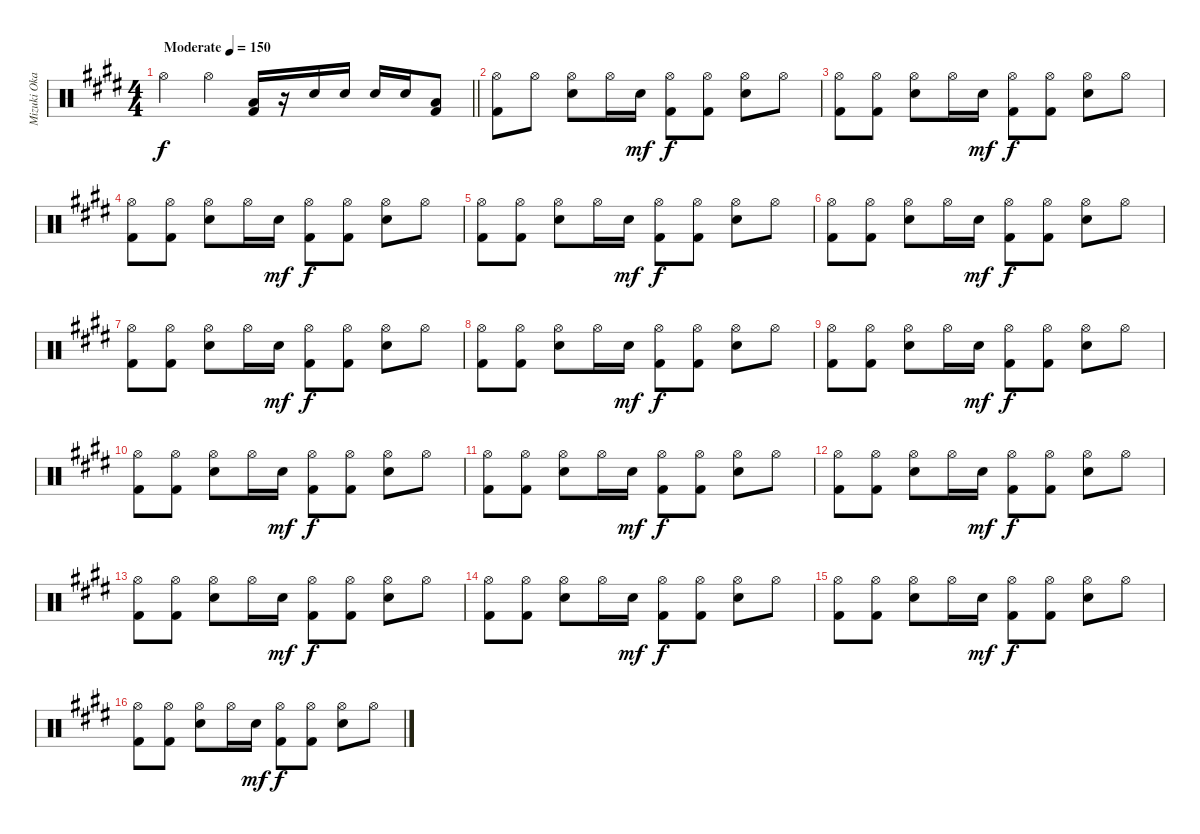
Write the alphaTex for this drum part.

\track ("Mizuki Okajima (Drums)" "Mizuki Oka") {instrument percussion}
\staff {score}
\articulation defaults
\ts (4 4)
\tempo (150 "Moderate")
\clef neutral
\barLineRight lightlight
\ks c#minor "Hi-Hat (open)".4{dy f} "Hi-Hat (open)".4
("Low Tom (hit)" "Kick (hit) 2").16 r.16 "Snare (hit) 2".16 "Snare (hit) 2".16 "Snare (hit) 2".16 "Snare (hit) 2".16 ("Low Tom (hit)" "Kick (hit) 2").8 |
("Hi-Hat (open)" "Kick (hit) 2").8 "Hi-Hat (open)".8 ("Hi-Hat (open)" "Snare (hit) 2").8 "Hi-Hat (open)".16 "Snare (hit) 2".16{dy mf} ("Hi-Hat (open)" "Kick (hit) 2").8{dy f} ("Hi-Hat (open)" "Kick (hit) 2").8 ("Hi-Hat (open)" "Snare (hit) 2").8 "Hi-Hat (open)".8 |
("Hi-Hat (open)" "Kick (hit) 2").8 ("Hi-Hat (open)" "Kick (hit) 2").8 ("Hi-Hat (open)" "Snare (hit) 2").8 "Hi-Hat (open)".16 "Snare (hit) 2".16{dy mf} ("Hi-Hat (open)" "Kick (hit) 2").8{dy f} ("Hi-Hat (open)" "Kick (hit) 2").8 ("Hi-Hat (open)" "Snare (hit) 2").8 "Hi-Hat (open)".8 |
("Hi-Hat (open)" "Kick (hit) 2").8 ("Hi-Hat (open)" "Kick (hit) 2").8 ("Hi-Hat (open)" "Snare (hit) 2").8 "Hi-Hat (open)".16 "Snare (hit) 2".16{dy mf} ("Hi-Hat (open)" "Kick (hit) 2").8{dy f} ("Hi-Hat (open)" "Kick (hit) 2").8 ("Hi-Hat (open)" "Snare (hit) 2").8 "Hi-Hat (open)".8 |
("Hi-Hat (open)" "Kick (hit) 2").8 ("Hi-Hat (open)" "Kick (hit) 2").8 ("Hi-Hat (open)" "Snare (hit) 2").8 "Hi-Hat (open)".16 "Snare (hit) 2".16{dy mf} ("Hi-Hat (open)" "Kick (hit) 2").8{dy f} ("Hi-Hat (open)" "Kick (hit) 2").8 ("Hi-Hat (open)" "Snare (hit) 2").8 "Hi-Hat (open)".8 |
("Hi-Hat (open)" "Kick (hit) 2").8 ("Hi-Hat (open)" "Kick (hit) 2").8 ("Hi-Hat (open)" "Snare (hit) 2").8 "Hi-Hat (open)".16 "Snare (hit) 2".16{dy mf} ("Hi-Hat (open)" "Kick (hit) 2").8{dy f} ("Hi-Hat (open)" "Kick (hit) 2").8 ("Hi-Hat (open)" "Snare (hit) 2").8 "Hi-Hat (open)".8 |
("Hi-Hat (open)" "Kick (hit) 2").8 ("Hi-Hat (open)" "Kick (hit) 2").8 ("Hi-Hat (open)" "Snare (hit) 2").8 "Hi-Hat (open)".16 "Snare (hit) 2".16{dy mf} ("Hi-Hat (open)" "Kick (hit) 2").8{dy f} ("Hi-Hat (open)" "Kick (hit) 2").8 ("Hi-Hat (open)" "Snare (hit) 2").8 "Hi-Hat (open)".8 |
("Hi-Hat (open)" "Kick (hit) 2").8 ("Hi-Hat (open)" "Kick (hit) 2").8 ("Hi-Hat (open)" "Snare (hit) 2").8 "Hi-Hat (open)".16 "Snare (hit) 2".16{dy mf} ("Hi-Hat (open)" "Kick (hit) 2").8{dy f} ("Hi-Hat (open)" "Kick (hit) 2").8 ("Hi-Hat (open)" "Snare (hit) 2").8 "Hi-Hat (open)".8 |
("Hi-Hat (open)" "Kick (hit) 2").8 ("Hi-Hat (open)" "Kick (hit) 2").8 ("Hi-Hat (open)" "Snare (hit) 2").8 "Hi-Hat (open)".16 "Snare (hit) 2".16{dy mf} ("Hi-Hat (open)" "Kick (hit) 2").8{dy f} ("Hi-Hat (open)" "Kick (hit) 2").8 ("Hi-Hat (open)" "Snare (hit) 2").8 "Hi-Hat (open)".8 |
("Hi-Hat (open)" "Kick (hit) 2").8 ("Hi-Hat (open)" "Kick (hit) 2").8 ("Hi-Hat (open)" "Snare (hit) 2").8 "Hi-Hat (open)".16 "Snare (hit) 2".16{dy mf} ("Hi-Hat (open)" "Kick (hit) 2").8{dy f} ("Hi-Hat (open)" "Kick (hit) 2").8 ("Hi-Hat (open)" "Snare (hit) 2").8 "Hi-Hat (open)".8 |
("Hi-Hat (open)" "Kick (hit) 2").8 ("Hi-Hat (open)" "Kick (hit) 2").8 ("Hi-Hat (open)" "Snare (hit) 2").8 "Hi-Hat (open)".16 "Snare (hit) 2".16{dy mf} ("Hi-Hat (open)" "Kick (hit) 2").8{dy f} ("Hi-Hat (open)" "Kick (hit) 2").8 ("Hi-Hat (open)" "Snare (hit) 2").8 "Hi-Hat (open)".8 |
("Hi-Hat (open)" "Kick (hit) 2").8 ("Hi-Hat (open)" "Kick (hit) 2").8 ("Hi-Hat (open)" "Snare (hit) 2").8 "Hi-Hat (open)".16 "Snare (hit) 2".16{dy mf} ("Hi-Hat (open)" "Kick (hit) 2").8{dy f} ("Hi-Hat (open)" "Kick (hit) 2").8 ("Hi-Hat (open)" "Snare (hit) 2").8 "Hi-Hat (open)".8 |
("Hi-Hat (open)" "Kick (hit) 2").8 ("Hi-Hat (open)" "Kick (hit) 2").8 ("Hi-Hat (open)" "Snare (hit) 2").8 "Hi-Hat (open)".16 "Snare (hit) 2".16{dy mf} ("Hi-Hat (open)" "Kick (hit) 2").8{dy f} ("Hi-Hat (open)" "Kick (hit) 2").8 ("Hi-Hat (open)" "Snare (hit) 2").8 "Hi-Hat (open)".8 |
("Hi-Hat (open)" "Kick (hit) 2").8 ("Hi-Hat (open)" "Kick (hit) 2").8 ("Hi-Hat (open)" "Snare (hit) 2").8 "Hi-Hat (open)".16 "Snare (hit) 2".16{dy mf} ("Hi-Hat (open)" "Kick (hit) 2").8{dy f} ("Hi-Hat (open)" "Kick (hit) 2").8 ("Hi-Hat (open)" "Snare (hit) 2").8 "Hi-Hat (open)".8 |
("Hi-Hat (open)" "Kick (hit) 2").8 ("Hi-Hat (open)" "Kick (hit) 2").8 ("Hi-Hat (open)" "Snare (hit) 2").8 "Hi-Hat (open)".16 "Snare (hit) 2".16{dy mf} ("Hi-Hat (open)" "Kick (hit) 2").8{dy f} ("Hi-Hat (open)" "Kick (hit) 2").8 ("Hi-Hat (open)" "Snare (hit) 2").8 "Hi-Hat (open)".8 |
("Hi-Hat (open)" "Kick (hit) 2").8 ("Hi-Hat (open)" "Kick (hit) 2").8 ("Hi-Hat (open)" "Snare (hit) 2").8 "Hi-Hat (open)".16 "Snare (hit) 2".16{dy mf} ("Hi-Hat (open)" "Kick (hit) 2").8{dy f} ("Hi-Hat (open)" "Kick (hit) 2").8 ("Hi-Hat (open)" "Snare (hit) 2").8 "Hi-Hat (open)".8
